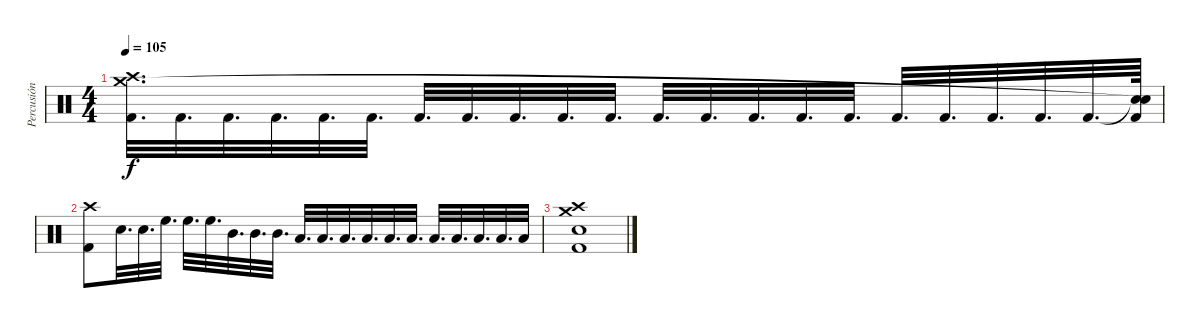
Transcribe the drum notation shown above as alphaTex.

\track ("Percusión" "Percusión") {instrument percussion}
\staff {score}
\articulation defaults
\ts (4 4)
\tempo 105
\clef neutral
\ks c
("Crash high (hit)" "Crash medium (hit)" "Kick (hit) 2").32{d dy f} "Kick (hit) 2".32{d} "Kick (hit) 2".32{d} "Kick (hit) 2".32{d} "Kick (hit) 2".32{d} "Kick (hit) 2".32{d} "Kick (hit) 2".32{d} "Kick (hit) 2".32{d} "Kick (hit) 2".32{d} "Kick (hit) 2".32{d} "Kick (hit) 2".32{d} "Kick (hit) 2".32{d} "Kick (hit) 2".32{d} "Kick (hit) 2".32{d} "Kick (hit) 2".32{d} "Kick (hit) 2".32{d} "Kick (hit) 2".32{d} "Kick (hit) 2".32{d} "Kick (hit) 2".32{d} "Kick (hit) 2".32{d} "Kick (hit) 2".32{d} ("Snare (hit)"{t} "Snare (hit)"{t} "Kick (hit) 2").64 |
("Crash high (hit)" "Kick (hit) 2").8 "Snare (hit) 2".32{d} "Snare (hit) 2".32{d} "High Floor Tom (hit)".32{d} "High Floor Tom (hit)".32{d} "High Floor Tom (hit)".32{d} "Mid Tom (hit)".32{d} "Mid Tom (hit)".32{d} "Mid Tom (hit)".32{d} "Low Tom (hit)".32{d} "Low Tom (hit)".32{d} "Low Tom (hit)".32{d} "Low Floor Tom (hit)".32{d} "Low Floor Tom (hit)".32{d} "Low Floor Tom (hit)".32{d} "Low Floor Tom (hit)".32{d} "Low Floor Tom (hit)".32{d} "Low Floor Tom (hit)".32{d} "Low Floor Tom (hit)".32{d} "Low Floor Tom (hit)".32 |
("Crash high (hit)" "Crash medium (hit)" "Snare (hit) 2" "Kick (hit) 2").1
